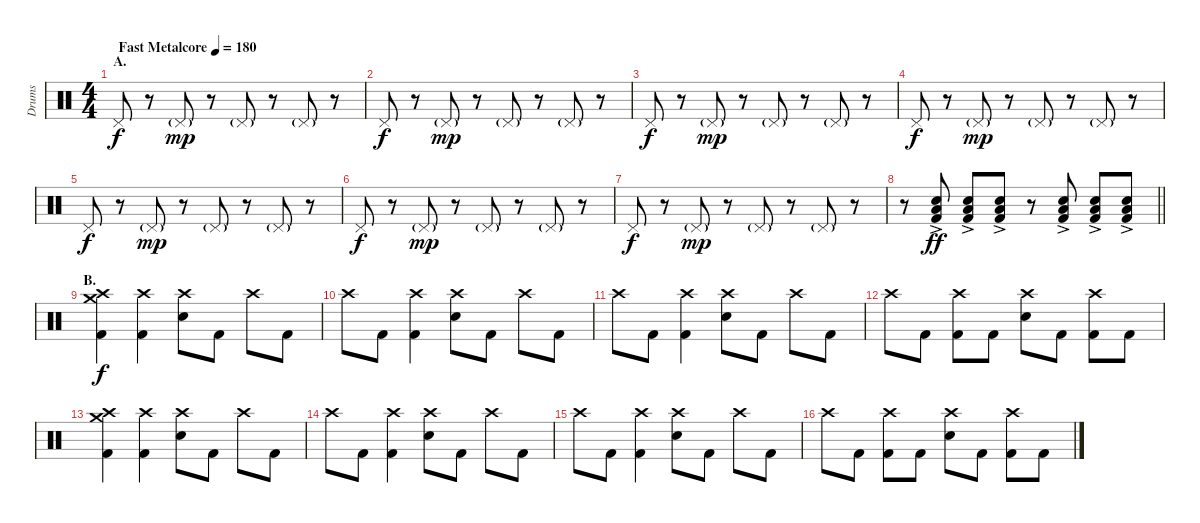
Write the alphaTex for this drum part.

\track ("Drums" "Drums") {instrument percussion}
\staff {score}
\articulation defaults
\ts (4 4)
\section ("" "A.")
\tempo (180 "Fast Metalcore")
\clef neutral
\ks c "Pedal Hi-Hat (hit)".8{dy f}
r.8 "Pedal Hi-Hat (hit)"{g}.8{dy mp} r.8 "Pedal Hi-Hat (hit)"{g}.8 r.8 "Pedal Hi-Hat (hit)"{g}.8 r.8 |
"Pedal Hi-Hat (hit)".8{dy f} r.8 "Pedal Hi-Hat (hit)"{g}.8{dy mp} r.8 "Pedal Hi-Hat (hit)"{g}.8 r.8 "Pedal Hi-Hat (hit)"{g}.8 r.8 |
"Pedal Hi-Hat (hit)".8{dy f} r.8 "Pedal Hi-Hat (hit)"{g}.8{dy mp} r.8 "Pedal Hi-Hat (hit)"{g}.8 r.8 "Pedal Hi-Hat (hit)"{g}.8 r.8 |
"Pedal Hi-Hat (hit)".8{dy f} r.8 "Pedal Hi-Hat (hit)"{g}.8{dy mp} r.8 "Pedal Hi-Hat (hit)"{g}.8 r.8 "Pedal Hi-Hat (hit)"{g}.8 r.8 |
"Pedal Hi-Hat (hit)".8{dy f} r.8 "Pedal Hi-Hat (hit)"{g}.8{dy mp} r.8 "Pedal Hi-Hat (hit)"{g}.8 r.8 "Pedal Hi-Hat (hit)"{g}.8 r.8 |
"Pedal Hi-Hat (hit)".8{dy f} r.8 "Pedal Hi-Hat (hit)"{g}.8{dy mp} r.8 "Pedal Hi-Hat (hit)"{g}.8 r.8 "Pedal Hi-Hat (hit)"{g}.8 r.8 |
"Pedal Hi-Hat (hit)".8{dy f} r.8 "Pedal Hi-Hat (hit)"{g}.8{dy mp} r.8 "Pedal Hi-Hat (hit)"{g}.8 r.8 "Pedal Hi-Hat (hit)"{g}.8 r.8 |
\barLineRight lightlight
r.8 ("Electric Snare (hit)"{ac} "Low Floor Tom (hit)"{ac} "Kick (hit) 2").8{dy ff} ("Electric Snare (hit)"{ac} "Low Floor Tom (hit)"{ac} "Kick (hit) 2").8 ("Electric Snare (hit)"{ac} "Low Floor Tom (hit)"{ac} "Kick (hit) 2").8 r.8 ("Electric Snare (hit)"{ac} "Low Floor Tom (hit)"{ac} "Kick (hit) 2").8 ("Electric Snare (hit)"{ac} "Low Floor Tom (hit)"{ac} "Kick (hit) 2").8 ("Electric Snare (hit)"{ac} "Low Floor Tom (hit)"{ac} "Kick (hit) 2").8 |
\section ("" "B.")
("Crash medium (hit)" "Crash high (hit)" "Kick (hit) 2").4{dy f} ("Crash high (hit)" "Kick (hit) 2").4 ("Crash high (hit)" "Electric Snare (hit)").8 "Kick (hit) 2".8 "Crash high (hit)".8 "Kick (hit) 2".8 |
"Crash high (hit)".8 "Kick (hit) 2".8 ("Crash high (hit)" "Kick (hit) 2").4 ("Crash high (hit)" "Electric Snare (hit)").8 "Kick (hit) 2".8 "Crash high (hit)".8 "Kick (hit) 2".8 |
"Crash high (hit)".8 "Kick (hit) 2".8 ("Crash high (hit)" "Kick (hit) 2").4 ("Crash high (hit)" "Electric Snare (hit)").8 "Kick (hit) 2".8 "Crash high (hit)".8 "Kick (hit) 2".8 |
"Crash high (hit)".8 "Kick (hit) 2".8 ("Crash high (hit)" "Kick (hit) 2").8 "Kick (hit) 2".8 ("Crash high (hit)" "Electric Snare (hit)").8 "Kick (hit) 2".8 ("Crash high (hit)" "Kick (hit) 2").8 "Kick (hit) 2".8 |
("Crash medium (hit)" "Crash high (hit)" "Kick (hit) 2").4 ("Crash high (hit)" "Kick (hit) 2").4 ("Crash high (hit)" "Electric Snare (hit)").8 "Kick (hit) 2".8 "Crash high (hit)".8 "Kick (hit) 2".8 |
"Crash high (hit)".8 "Kick (hit) 2".8 ("Crash high (hit)" "Kick (hit) 2").4 ("Crash high (hit)" "Electric Snare (hit)").8 "Kick (hit) 2".8 "Crash high (hit)".8 "Kick (hit) 2".8 |
"Crash high (hit)".8 "Kick (hit) 2".8 ("Crash high (hit)" "Kick (hit) 2").4 ("Crash high (hit)" "Electric Snare (hit)").8 "Kick (hit) 2".8 "Crash high (hit)".8 "Kick (hit) 2".8 |
"Crash high (hit)".8 "Kick (hit) 2".8 ("Crash high (hit)" "Kick (hit) 2").8 "Kick (hit) 2".8 ("Crash high (hit)" "Electric Snare (hit)").8 "Kick (hit) 2".8 ("Crash high (hit)" "Kick (hit) 2").8 "Kick (hit) 2".8
